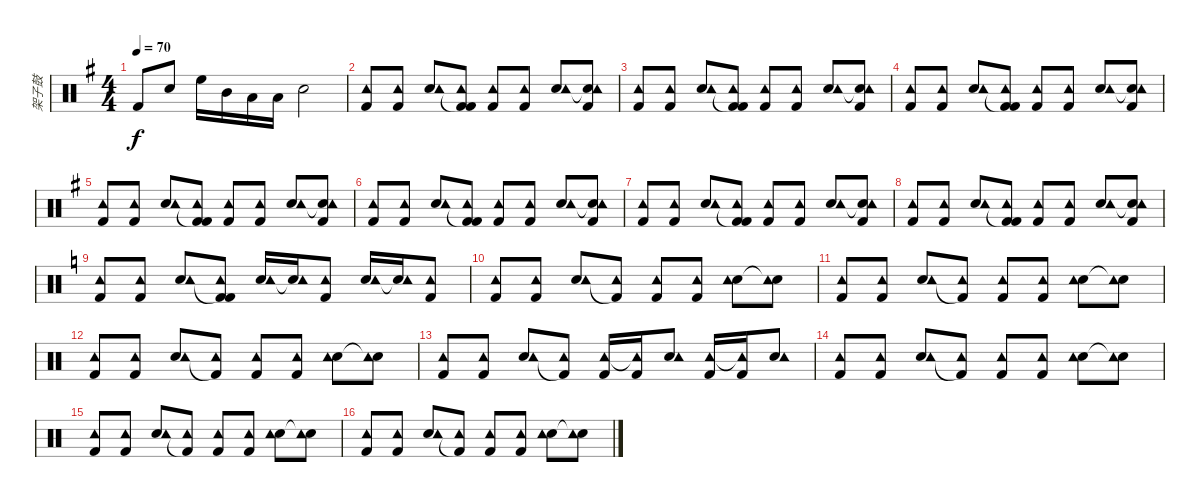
\track ("架子鼓" "架子鼓") {instrument percussion}
\staff {score}
\articulation defaults
\ts (4 4)
\tempo 70
\clef neutral
\ks g "Kick (hit) 2".8{dy f} "Snare (hit) 2".8 "High Floor Tom (hit)".16 "Mid Tom (hit)".16 "Low Tom (hit)".16 "Low Floor Tom (hit)".16 "Snare (hit) 2".2
|
("Kick (hit) 2" "Tambourine (hit)").8 ("Kick (hit) 2" "Tambourine (hit)").8 ("Snare (hit) 2" "Tambourine (hit)").8 ("Kick (hit) 2"{t} "Tambourine (hit)" "Kick (hit) 2").8 ("Kick (hit) 2" "Tambourine (hit)").8 ("Kick (hit) 2" "Tambourine (hit)").8 ("Snare (hit) 2" "Tambourine (hit)").8 ("Snare (hit) 2"{t} "Tambourine (hit)" "Kick (hit) 2").8 |
("Kick (hit) 2" "Tambourine (hit)").8 ("Kick (hit) 2" "Tambourine (hit)").8 ("Snare (hit) 2" "Tambourine (hit)").8 ("Kick (hit) 2"{t} "Tambourine (hit)" "Kick (hit) 2").8 ("Kick (hit) 2" "Tambourine (hit)").8 ("Kick (hit) 2" "Tambourine (hit)").8 ("Snare (hit) 2" "Tambourine (hit)").8 ("Snare (hit) 2"{t} "Tambourine (hit)" "Kick (hit) 2").8 |
("Kick (hit) 2" "Tambourine (hit)").8 ("Kick (hit) 2" "Tambourine (hit)").8 ("Snare (hit) 2" "Tambourine (hit)").8 ("Kick (hit) 2"{t} "Tambourine (hit)" "Kick (hit) 2").8 ("Kick (hit) 2" "Tambourine (hit)").8 ("Kick (hit) 2" "Tambourine (hit)").8 ("Snare (hit) 2" "Tambourine (hit)").8 ("Snare (hit) 2"{t} "Tambourine (hit)" "Kick (hit) 2").8 |
("Kick (hit) 2" "Tambourine (hit)").8 ("Kick (hit) 2" "Tambourine (hit)").8 ("Snare (hit) 2" "Tambourine (hit)").8 ("Kick (hit) 2"{t} "Tambourine (hit)" "Kick (hit) 2").8 ("Kick (hit) 2" "Tambourine (hit)").8 ("Kick (hit) 2" "Tambourine (hit)").8 ("Snare (hit) 2" "Tambourine (hit)").8 ("Snare (hit) 2"{t} "Tambourine (hit)" "Kick (hit) 2").8 |
("Kick (hit) 2" "Tambourine (hit)").8 ("Kick (hit) 2" "Tambourine (hit)").8 ("Snare (hit) 2" "Tambourine (hit)").8 ("Kick (hit) 2"{t} "Tambourine (hit)" "Kick (hit) 2").8 ("Kick (hit) 2" "Tambourine (hit)").8 ("Kick (hit) 2" "Tambourine (hit)").8 ("Snare (hit) 2" "Tambourine (hit)").8 ("Snare (hit) 2"{t} "Tambourine (hit)" "Kick (hit) 2").8 |
("Kick (hit) 2" "Tambourine (hit)").8 ("Kick (hit) 2" "Tambourine (hit)").8 ("Snare (hit) 2" "Tambourine (hit)").8 ("Kick (hit) 2"{t} "Tambourine (hit)" "Kick (hit) 2").8 ("Kick (hit) 2" "Tambourine (hit)").8 ("Kick (hit) 2" "Tambourine (hit)").8 ("Snare (hit) 2" "Tambourine (hit)").8 ("Snare (hit) 2"{t} "Tambourine (hit)" "Kick (hit) 2").8 |
("Kick (hit) 2" "Tambourine (hit)").8 ("Kick (hit) 2" "Tambourine (hit)").8 ("Snare (hit) 2" "Tambourine (hit)").8 ("Kick (hit) 2"{t} "Tambourine (hit)" "Kick (hit) 2").8 ("Kick (hit) 2" "Tambourine (hit)").8 ("Kick (hit) 2" "Tambourine (hit)").8 ("Snare (hit) 2" "Tambourine (hit)").8 ("Snare (hit) 2"{t} "Tambourine (hit)" "Kick (hit) 2").8 |
\ks c
("Kick (hit) 2" "Tambourine (hit)").8 ("Kick (hit) 2" "Tambourine (hit)").8 ("Snare (hit) 2" "Tambourine (hit)").8 ("Kick (hit) 2"{t} "Tambourine (hit)" "Kick (hit) 2").8 ("Snare (hit) 2" "Tambourine (hit)").16 ("Snare (hit) 2" "Tambourine (hit)"{t}).16 ("Kick (hit) 2" "Tambourine (hit)").8 ("Snare (hit) 2" "Tambourine (hit)").16 ("Snare (hit) 2" "Tambourine (hit)"{t}).16 ("Kick (hit) 2" "Tambourine (hit)").8 |
("Kick (hit) 2" "Tambourine (hit)").8 ("Kick (hit) 2" "Tambourine (hit)").8 ("Snare (hit) 2" "Tambourine (hit)").8 ("Kick (hit) 2"{t} "Tambourine (hit)").8 ("Kick (hit) 2" "Tambourine (hit)").8 ("Kick (hit) 2" "Tambourine (hit)").8 ("Snare (hit) 2" "Tambourine (hit)").8 ("Snare (hit) 2"{t} "Tambourine (hit)").8 |
("Kick (hit) 2" "Tambourine (hit)").8 ("Kick (hit) 2" "Tambourine (hit)").8 ("Snare (hit) 2" "Tambourine (hit)").8 ("Kick (hit) 2"{t} "Tambourine (hit)").8 ("Kick (hit) 2" "Tambourine (hit)").8 ("Kick (hit) 2" "Tambourine (hit)").8 ("Snare (hit) 2" "Tambourine (hit)").8 ("Snare (hit) 2"{t} "Tambourine (hit)").8 |
("Kick (hit) 2" "Tambourine (hit)").8 ("Kick (hit) 2" "Tambourine (hit)").8 ("Snare (hit) 2" "Tambourine (hit)").8 ("Kick (hit) 2"{t} "Tambourine (hit)").8 ("Kick (hit) 2" "Tambourine (hit)").8 ("Kick (hit) 2" "Tambourine (hit)").8 ("Snare (hit) 2" "Tambourine (hit)").8 ("Snare (hit) 2"{t} "Tambourine (hit)").8 |
("Kick (hit) 2" "Tambourine (hit)").8 ("Kick (hit) 2" "Tambourine (hit)").8 ("Snare (hit) 2" "Tambourine (hit)").8 ("Kick (hit) 2"{t} "Tambourine (hit)").8 ("Kick (hit) 2" "Tambourine (hit)").16 ("Kick (hit) 2" "Tambourine (hit)"{t}).16 ("Snare (hit) 2" "Tambourine (hit)").8 ("Kick (hit) 2" "Tambourine (hit)").16 ("Kick (hit) 2" "Tambourine (hit)"{t}).16 ("Snare (hit) 2" "Tambourine (hit)").8 |
("Kick (hit) 2" "Tambourine (hit)").8 ("Kick (hit) 2" "Tambourine (hit)").8 ("Snare (hit) 2" "Tambourine (hit)").8 ("Kick (hit) 2"{t} "Tambourine (hit)").8 ("Kick (hit) 2" "Tambourine (hit)").8 ("Kick (hit) 2" "Tambourine (hit)").8 ("Snare (hit) 2" "Tambourine (hit)").8 ("Snare (hit) 2"{t} "Tambourine (hit)").8 |
("Kick (hit) 2" "Tambourine (hit)").8 ("Kick (hit) 2" "Tambourine (hit)").8 ("Snare (hit) 2" "Tambourine (hit)").8 ("Kick (hit) 2"{t} "Tambourine (hit)").8 ("Kick (hit) 2" "Tambourine (hit)").8 ("Kick (hit) 2" "Tambourine (hit)").8 ("Snare (hit) 2" "Tambourine (hit)").8 ("Snare (hit) 2"{t} "Tambourine (hit)").8 |
("Kick (hit) 2" "Tambourine (hit)").8 ("Kick (hit) 2" "Tambourine (hit)").8 ("Snare (hit) 2" "Tambourine (hit)").8 ("Kick (hit) 2"{t} "Tambourine (hit)").8 ("Kick (hit) 2" "Tambourine (hit)").8 ("Kick (hit) 2" "Tambourine (hit)").8 ("Snare (hit) 2" "Tambourine (hit)").8 ("Snare (hit) 2"{t} "Tambourine (hit)").8
